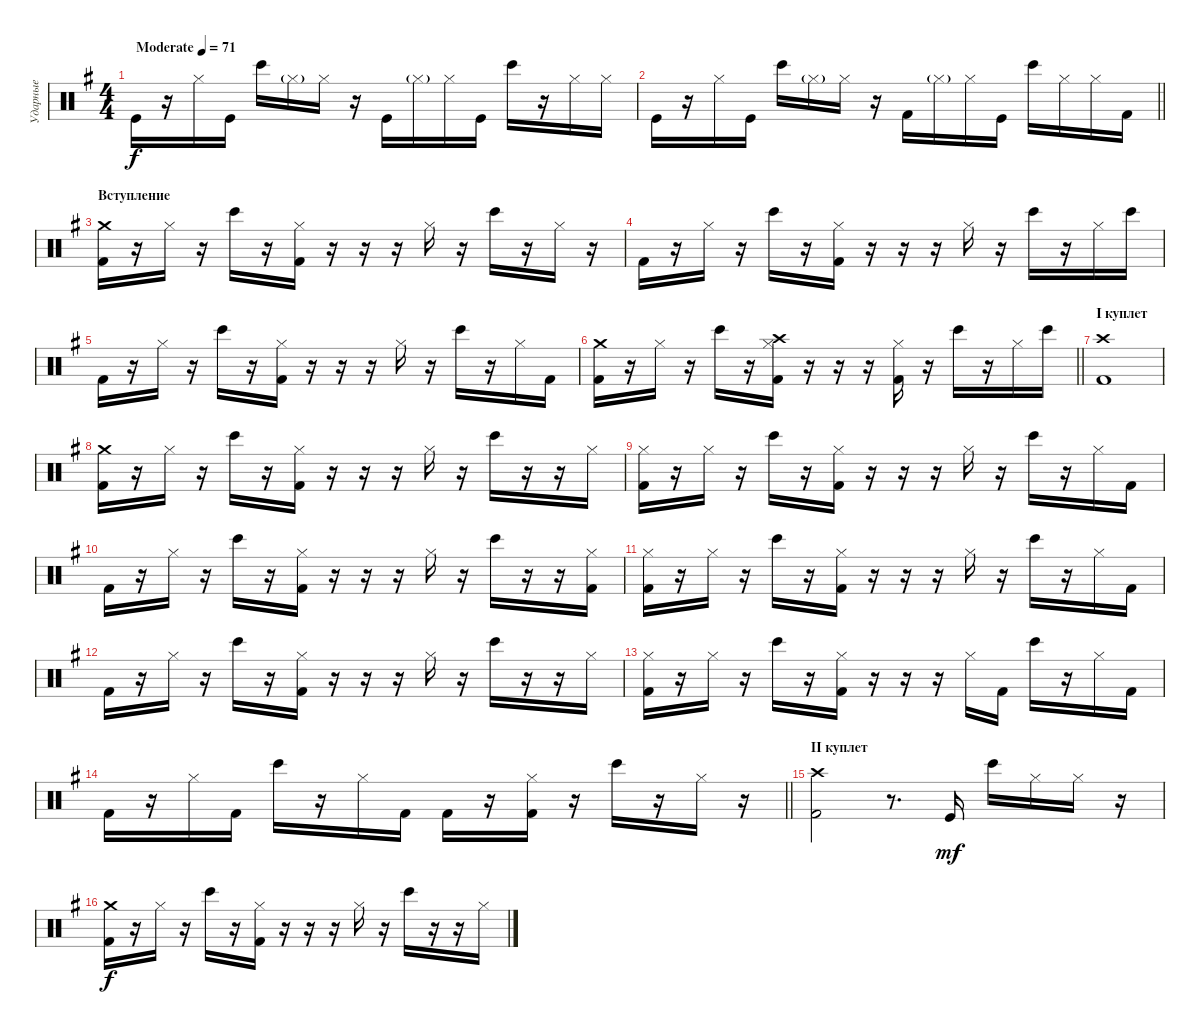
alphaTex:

\track ("Ударные" "Ударные") {instrument percussion}
\staff {score}
\articulation defaults
\ts (4 4)
\section ("" "")
\tempo (71 "Moderate")
\clef neutral
\ks eminor "Kick (hit)".16{dy f}
r.16 "Hi-Hat (closed)".16 "Kick (hit)".16 "Bongo High (hit)".16 "Hi-Hat (closed)"{g}.16 "Hi-Hat (closed)".16 r.16 "Kick (hit)".16 "Hi-Hat (closed)"{g}.16 "Hi-Hat (closed)".16 "Kick (hit)".16 "Bongo High (hit)".16 r.16 "Hi-Hat (closed)".16 "Hi-Hat (closed)".16 |
\barLineRight lightlight "Kick (hit)".16
r.16 "Hi-Hat (closed)".16 "Kick (hit)".16 "Bongo High (hit)".16 "Hi-Hat (closed)"{g}.16 "Hi-Hat (closed)".16 r.16 "Kick (hit) 2".16 "Hi-Hat (closed)"{g}.16 "Hi-Hat (closed)".16 "Kick (hit)".16 "Bongo High (hit)".16 "Hi-Hat (closed)".16 "Hi-Hat (closed)".16 "Kick (hit) 2".16 |
\section ("" "Вступление")
("Crash medium (hit)" "Kick (hit) 2").16 r.16 "Hi-Hat (closed)".16 r.16 "Bongo High (hit)".16 r.16 ("Hi-Hat (closed)" "Kick (hit) 2").16 r.16 r.16 r.16 "Hi-Hat (closed)".16 r.16 "Bongo High (hit)".16 r.16 "Hi-Hat (closed)".16 r.16 |
"Kick (hit) 2".16 r.16 "Hi-Hat (closed)".16 r.16 "Bongo High (hit)".16 r.16 ("Hi-Hat (closed)" "Kick (hit) 2").16 r.16 r.16 r.16 "Hi-Hat (closed)".16 r.16 "Bongo High (hit)".16 r.16 "Hi-Hat (closed)".16 "Bongo High (hit)".16 |
"Kick (hit) 2".16 r.16 "Hi-Hat (closed)".16 r.16 "Bongo High (hit)".16 r.16 ("Hi-Hat (closed)" "Kick (hit) 2").16 r.16 r.16 r.16 "Hi-Hat (closed)".16 r.16 "Bongo High (hit)".16 r.16 "Hi-Hat (closed)".16 "Kick (hit) 2".16 |
\barLineRight lightlight
("Crash medium (hit)" "Kick (hit) 2").16 r.16 "Hi-Hat (closed)".16 r.16 "Bongo High (hit)".16 r.16 ("Hi-Hat (closed)" "Kick (hit) 2" "Crash high (hit)").16 r.16 r.16 r.16 ("Hi-Hat (closed)" "Kick (hit) 2").16 r.16 "Bongo High (hit)".16 r.16 "Hi-Hat (closed)".16 "Bongo High (hit)".16 |
\section ("" "I куплет")
("Crash high (hit)" "Kick (hit) 2").1 |
("Crash medium (hit)" "Kick (hit) 2").16{volume 12} r.16 "Hi-Hat (closed)".16 r.16 "Bongo High (hit)".16 r.16 ("Hi-Hat (closed)" "Kick (hit) 2").16 r.16 r.16 r.16 "Hi-Hat (closed)".16 r.16 "Bongo High (hit)".16 r.16 r.16 "Hi-Hat (closed)".16 |
("Hi-Hat (closed)" "Kick (hit) 2").16 r.16 "Hi-Hat (closed)".16 r.16 "Bongo High (hit)".16 r.16 ("Hi-Hat (closed)" "Kick (hit) 2").16 r.16 r.16 r.16 "Hi-Hat (closed)".16 r.16 "Bongo High (hit)".16 r.16 "Hi-Hat (closed)".16 "Kick (hit) 2".16 |
"Kick (hit) 2".16 r.16 "Hi-Hat (closed)".16 r.16 "Bongo High (hit)".16 r.16 ("Hi-Hat (closed)" "Kick (hit) 2").16 r.16 r.16 r.16 "Hi-Hat (closed)".16 r.16 "Bongo High (hit)".16 r.16 r.16 ("Hi-Hat (closed)" "Kick (hit) 2").16 |
("Hi-Hat (closed)" "Kick (hit) 2").16 r.16 "Hi-Hat (closed)".16 r.16 "Bongo High (hit)".16 r.16 ("Hi-Hat (closed)" "Kick (hit) 2").16 r.16 r.16 r.16 "Hi-Hat (closed)".16 r.16 "Bongo High (hit)".16 r.16 "Hi-Hat (closed)".16 "Kick (hit) 2".16 |
"Kick (hit) 2".16 r.16 "Hi-Hat (closed)".16 r.16 "Bongo High (hit)".16 r.16 ("Hi-Hat (closed)" "Kick (hit) 2").16 r.16 r.16 r.16 "Hi-Hat (closed)".16 r.16 "Bongo High (hit)".16 r.16 r.16 "Hi-Hat (closed)".16 |
("Hi-Hat (closed)" "Kick (hit) 2").16 r.16 "Hi-Hat (closed)".16 r.16 "Bongo High (hit)".16 r.16 ("Hi-Hat (closed)" "Kick (hit) 2").16 r.16 r.16 r.16 "Hi-Hat (closed)".16 "Kick (hit) 2".16 "Bongo High (hit)".16 r.16 "Hi-Hat (closed)".16 "Kick (hit) 2".16 |
\barLineRight lightlight "Kick (hit) 2".16
r.16 "Hi-Hat (closed)".16 "Kick (hit) 2".16 "Bongo High (hit)".16 r.16 "Hi-Hat (closed)".16 "Kick (hit) 2".16 "Kick (hit) 2".16 r.16 ("Hi-Hat (closed)" "Kick (hit) 2").16 r.16 "Bongo High (hit)".16 r.16 "Hi-Hat (closed)".16 r.16 |
\section ("" "II куплет")
("Crash high (hit)" "Kick (hit) 2").2 r.8{d} "Kick (hit)".16{dy mf} "Bongo High (hit)".16 "Hi-Hat (closed)".16 "Hi-Hat (closed)".16 r.16 |
("Crash medium (hit)" "Kick (hit) 2").16{dy f volume 12} r.16 "Hi-Hat (closed)".16 r.16 "Bongo High (hit)".16 r.16 ("Hi-Hat (closed)" "Kick (hit) 2").16 r.16 r.16 r.16 "Hi-Hat (closed)".16 r.16 "Bongo High (hit)".16 r.16 r.16 "Hi-Hat (closed)".16
